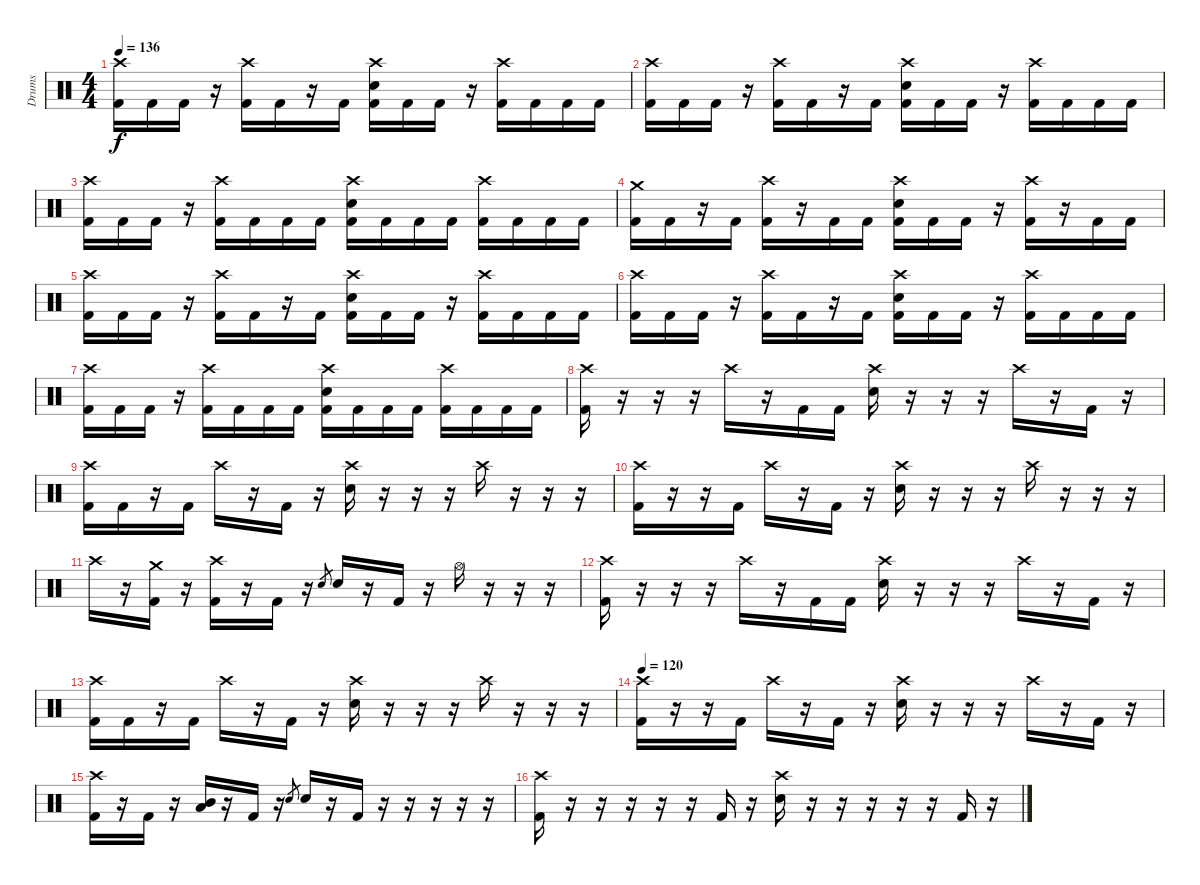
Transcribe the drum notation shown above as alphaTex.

\track ("Drums" "Drums") {instrument percussion}
\staff {score}
\articulation defaults
\ts (4 4)
\tempo 136
\clef neutral
\ks c
("Crash high (hit)" "Kick (hit) 2").16{dy f} "Kick (hit) 2".16 "Kick (hit) 2".16 r.16 ("Crash high (hit)" "Kick (hit) 2").16 "Kick (hit) 2".16 r.16 "Kick (hit) 2".16 ("Crash high (hit)" "Snare (hit) 2" "Kick (hit) 2").16 "Kick (hit) 2".16 "Kick (hit) 2".16 r.16 ("Crash high (hit)" "Kick (hit) 2").16 "Kick (hit) 2".16 "Kick (hit) 2".16 "Kick (hit) 2".16 |
("Crash high (hit)" "Kick (hit) 2").16 "Kick (hit) 2".16 "Kick (hit) 2".16 r.16 ("Crash high (hit)" "Kick (hit) 2").16 "Kick (hit) 2".16 r.16 "Kick (hit) 2".16 ("Crash high (hit)" "Snare (hit) 2" "Kick (hit) 2").16 "Kick (hit) 2".16 "Kick (hit) 2".16 r.16 ("Crash high (hit)" "Kick (hit) 2").16 "Kick (hit) 2".16 "Kick (hit) 2".16 "Kick (hit) 2".16 |
("Crash high (hit)" "Kick (hit) 2").16 "Kick (hit) 2".16 "Kick (hit) 2".16 r.16 ("Crash high (hit)" "Kick (hit) 2").16 "Kick (hit) 2".16 "Kick (hit) 2".16 "Kick (hit) 2".16 ("Crash high (hit)" "Snare (hit) 2" "Kick (hit) 2").16 "Kick (hit) 2".16 "Kick (hit) 2".16 "Kick (hit) 2".16 ("Crash high (hit)" "Kick (hit) 2").16 "Kick (hit) 2".16 "Kick (hit) 2".16 "Kick (hit) 2".16 |
("Crash medium (hit)" "Kick (hit) 2").16 "Kick (hit) 2".16 r.16 "Kick (hit) 2".16 ("Crash high (hit)" "Kick (hit) 2").16 r.16 "Kick (hit) 2".16 "Kick (hit) 2".16 ("Crash high (hit)" "Snare (hit) 2" "Kick (hit) 2").16 "Kick (hit) 2".16 "Kick (hit) 2".16 r.16 ("Crash high (hit)" "Kick (hit) 2").16 r.16 "Kick (hit) 2".16 "Kick (hit) 2".16 |
("Crash high (hit)" "Kick (hit) 2").16 "Kick (hit) 2".16 "Kick (hit) 2".16 r.16 ("Crash high (hit)" "Kick (hit) 2").16 "Kick (hit) 2".16 r.16 "Kick (hit) 2".16 ("Crash high (hit)" "Snare (hit) 2" "Kick (hit) 2").16 "Kick (hit) 2".16 "Kick (hit) 2".16 r.16 ("Crash high (hit)" "Kick (hit) 2").16 "Kick (hit) 2".16 "Kick (hit) 2".16 "Kick (hit) 2".16 |
("Crash high (hit)" "Kick (hit) 2").16 "Kick (hit) 2".16 "Kick (hit) 2".16 r.16 ("Crash high (hit)" "Kick (hit) 2").16 "Kick (hit) 2".16 r.16 "Kick (hit) 2".16 ("Crash high (hit)" "Snare (hit) 2" "Kick (hit) 2").16 "Kick (hit) 2".16 "Kick (hit) 2".16 r.16 ("Crash high (hit)" "Kick (hit) 2").16 "Kick (hit) 2".16 "Kick (hit) 2".16 "Kick (hit) 2".16 |
("Crash high (hit)" "Kick (hit) 2").16 "Kick (hit) 2".16 "Kick (hit) 2".16 r.16 ("Crash high (hit)" "Kick (hit) 2").16 "Kick (hit) 2".16 "Kick (hit) 2".16 "Kick (hit) 2".16 ("Crash high (hit)" "Snare (hit) 2" "Kick (hit) 2").16 "Kick (hit) 2".16 "Kick (hit) 2".16 "Kick (hit) 2".16 ("Crash high (hit)" "Kick (hit) 2").16 "Kick (hit) 2".16 "Kick (hit) 2".16 "Kick (hit) 2".16 |
("Crash high (hit)" "Kick (hit) 2").16 r.16 r.16 r.16 "Crash high (hit)".16 r.16 "Kick (hit) 2".16 "Kick (hit) 2".16 ("Crash high (hit)" "Snare (hit) 2").16 r.16 r.16 r.16 "Crash high (hit)".16 r.16 "Kick (hit) 2".16 r.16 |
("Crash high (hit)" "Kick (hit) 2").16 "Kick (hit) 2".16 r.16 "Kick (hit) 2".16 "Crash high (hit)".16 r.16 "Kick (hit) 2".16 r.16 ("Crash high (hit)" "Snare (hit) 2").16 r.16 r.16 r.16 "Crash high (hit)".16 r.16 r.16 r.16 |
("Crash high (hit)" "Kick (hit) 2").16 r.16 r.16 "Kick (hit) 2".16 "Crash high (hit)".16 r.16 "Kick (hit) 2".16 r.16 ("Crash high (hit)" "Snare (hit) 2").16 r.16 r.16 r.16 "Crash high (hit)".16 r.16 r.16 r.16 |
"Crash high (hit)".16 r.16 ("Crash medium (hit)" "Kick (hit) 2").16 r.16 ("Crash high (hit)" "Kick (hit) 2").16 r.16 "Kick (hit) 2".16 r.16 "Snare (hit) 2".8{gr} "Snare (hit) 2".16 r.16 "Kick (hit) 2".16 r.16 "Hi-Hat (open)".16 r.16 r.16 r.16 |
("Crash high (hit)" "Kick (hit) 2").16 r.16 r.16 r.16 "Crash high (hit)".16 r.16 "Kick (hit) 2".16 "Kick (hit) 2".16 ("Crash high (hit)" "Snare (hit) 2").16 r.16 r.16 r.16 "Crash high (hit)".16 r.16 "Kick (hit) 2".16 r.16 |
("Crash high (hit)" "Kick (hit) 2").16 "Kick (hit) 2".16 r.16 "Kick (hit) 2".16 "Crash high (hit)".16 r.16 "Kick (hit) 2".16 r.16 ("Crash high (hit)" "Snare (hit) 2").16 r.16 r.16 r.16 "Crash high (hit)".16 r.16 r.16 r.16 |
\tempo 120
("Crash high (hit)" "Kick (hit) 2").16 r.16 r.16 "Kick (hit) 2".16 "Crash high (hit)".16 r.16 "Kick (hit) 2".16 r.16 ("Crash high (hit)" "Snare (hit) 2").16 r.16 r.16 r.16 "Crash high (hit)".16 r.16 "Kick (hit) 2".16 r.16 |
("Crash high (hit)" "Kick (hit) 2").16 r.16 "Kick (hit) 2".16 r.16 ("Mid Tom (hit)" "Low Tom (hit)").16 r.16 "Kick (hit) 2".16 r.16 "Snare (hit) 2".8{gr} "Snare (hit) 2".16 r.16 "Kick (hit) 2".16 r.16 r.16 r.16 r.16 r.16 |
("Crash high (hit)" "Kick (hit) 2").16 r.16 r.16 r.16 r.16 r.16 "Kick (hit) 2".16 r.16 ("Crash high (hit)" "Snare (hit) 2").16 r.16 r.16 r.16 r.16 r.16 "Kick (hit) 2".16 r.16
